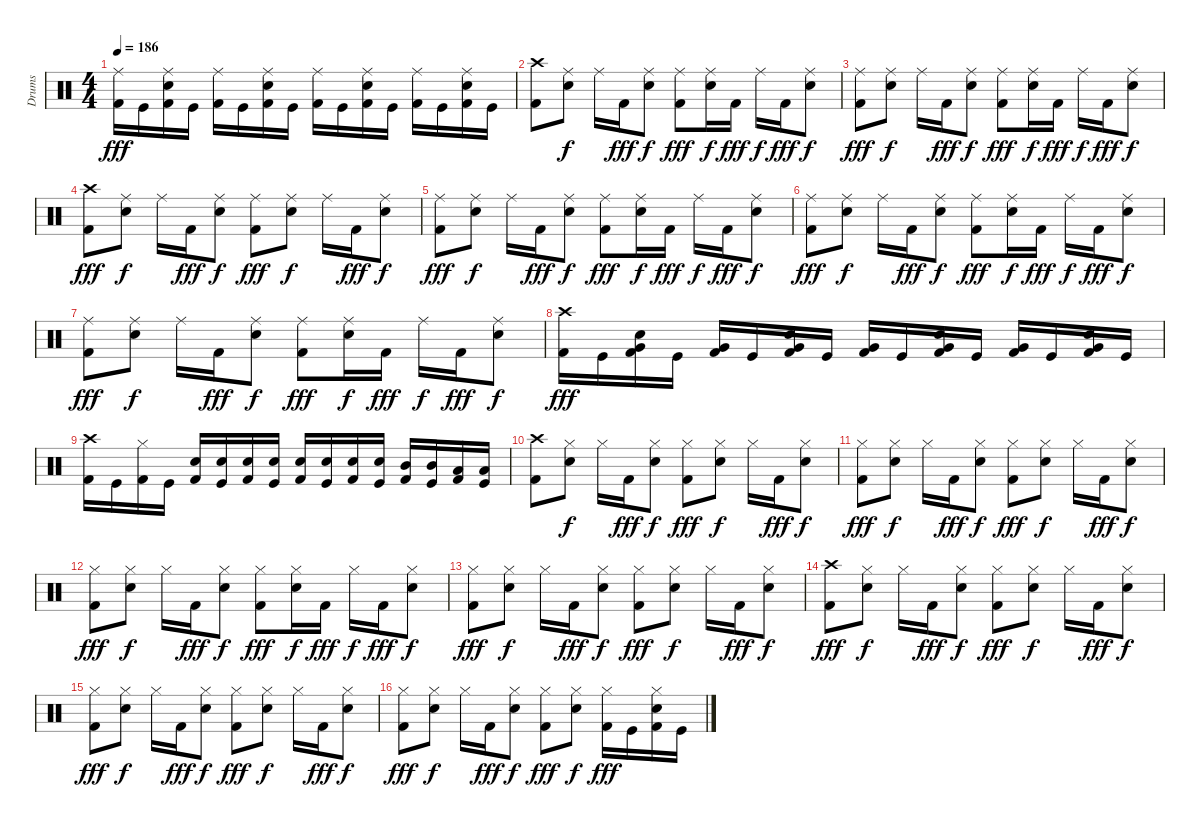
\track ("Drums" "Drums") {instrument percussion}
\staff {score}
\articulation defaults
\ts (4 4)
\tempo 186
\clef neutral
\ks c
("Ride (middle)" "Kick (hit) 2").16{dy fff} "Kick (hit)".16 ("Ride (middle)" "Electric Snare (hit)" "Kick (hit) 2").16 "Kick (hit)".16 ("Ride (middle)" "Kick (hit) 2").16 "Kick (hit)".16 ("Ride (middle)" "Electric Snare (hit)" "Kick (hit) 2").16 "Kick (hit)".16 ("Ride (middle)" "Kick (hit) 2").16 "Kick (hit)".16 ("Ride (middle)" "Electric Snare (hit)" "Kick (hit) 2").16 "Kick (hit)".16 ("Ride (middle)" "Kick (hit) 2").16 "Kick (hit)".16 ("Ride (middle)" "Electric Snare (hit)" "Kick (hit) 2").16 "Kick (hit)".16 |
("Crash high (hit)" "Kick (hit) 2").8 ("Ride (middle)" "Electric Snare (hit)").8{dy f} "Ride (middle)".16 "Kick (hit) 2".16{dy fff} ("Ride (middle)" "Electric Snare (hit)").8{dy f} ("Ride (middle)" "Kick (hit) 2").8{dy fff} ("Ride (middle)" "Electric Snare (hit)").16{dy f} "Kick (hit) 2".16{dy fff} "Ride (middle)".16{dy f} "Kick (hit) 2".16{dy fff} ("Ride (middle)" "Electric Snare (hit)").8{dy f} |
("Ride (middle)" "Kick (hit) 2").8{dy fff} ("Ride (middle)" "Electric Snare (hit)").8{dy f} "Ride (middle)".16 "Kick (hit) 2".16{dy fff} ("Ride (middle)" "Electric Snare (hit)").8{dy f} ("Ride (middle)" "Kick (hit) 2").8{dy fff} ("Ride (middle)" "Electric Snare (hit)").16{dy f} "Kick (hit) 2".16{dy fff} "Ride (middle)".16{dy f} "Kick (hit) 2".16{dy fff} ("Ride (middle)" "Electric Snare (hit)").8{dy f} |
("Crash high (hit)" "Kick (hit) 2").8{dy fff} ("Ride (middle)" "Electric Snare (hit)").8{dy f} "Ride (middle)".16 "Kick (hit) 2".16{dy fff} ("Ride (middle)" "Electric Snare (hit)").8{dy f} ("Ride (middle)" "Kick (hit) 2").8{dy fff} ("Ride (middle)" "Electric Snare (hit)").8{dy f} "Ride (middle)".16 "Kick (hit) 2".16{dy fff} ("Ride (middle)" "Electric Snare (hit)").8{dy f} |
("Ride (middle)" "Kick (hit) 2").8{dy fff} ("Ride (middle)" "Electric Snare (hit)").8{dy f} "Ride (middle)".16 "Kick (hit) 2".16{dy fff} ("Ride (middle)" "Electric Snare (hit)").8{dy f} ("Ride (middle)" "Kick (hit) 2").8{dy fff} ("Ride (middle)" "Electric Snare (hit)").16{dy f} "Kick (hit) 2".16{dy fff} "Ride (middle)".16{dy f} "Kick (hit) 2".16{dy fff} ("Ride (middle)" "Electric Snare (hit)").8{dy f} |
("Ride (middle)" "Kick (hit) 2").8{dy fff} ("Ride (middle)" "Electric Snare (hit)").8{dy f} "Ride (middle)".16 "Kick (hit) 2".16{dy fff} ("Ride (middle)" "Electric Snare (hit)").8{dy f} ("Ride (middle)" "Kick (hit) 2").8{dy fff} ("Ride (middle)" "Electric Snare (hit)").16{dy f} "Kick (hit) 2".16{dy fff} "Ride (middle)".16{dy f} "Kick (hit) 2".16{dy fff} ("Ride (middle)" "Electric Snare (hit)").8{dy f} |
("Ride (middle)" "Kick (hit) 2").8{dy fff} ("Ride (middle)" "Electric Snare (hit)").8{dy f} "Ride (middle)".16 "Kick (hit) 2".16{dy fff} ("Ride (middle)" "Electric Snare (hit)").8{dy f} ("Ride (middle)" "Kick (hit) 2").8{dy fff} ("Ride (middle)" "Electric Snare (hit)").16{dy f} "Kick (hit) 2".16{dy fff} "Ride (middle)".16{dy f} "Kick (hit) 2".16{dy fff} ("Ride (middle)" "Electric Snare (hit)").8{dy f} |
("Crash high (hit)" "Kick (hit) 2").16{dy fff} "Kick (hit)".16 ("Very Low Tom (hit)" "Electric Snare (hit)" "Kick (hit) 2").16 "Kick (hit)".16 ("Very Low Tom (hit)" "Kick (hit) 2").16 "Kick (hit)".16 ("Very Low Tom (hit)" "Electric Snare (hit)" "Kick (hit) 2").16 "Kick (hit)".16 ("Very Low Tom (hit)" "Kick (hit) 2").16 "Kick (hit)".16 ("Very Low Tom (hit)" "Electric Snare (hit)" "Kick (hit) 2").16 "Kick (hit)".16 ("Very Low Tom (hit)" "Kick (hit) 2").16 "Kick (hit)".16 ("Very Low Tom (hit)" "Electric Snare (hit)" "Kick (hit) 2").16 "Kick (hit)".16 |
("Crash high (hit)" "Kick (hit) 2").16 "Kick (hit)".16 ("Hi-Hat (closed)" "Kick (hit) 2").16 "Kick (hit)".16 ("Electric Snare (hit)" "Kick (hit) 2").16 ("Electric Snare (hit)" "Kick (hit)").16 ("Electric Snare (hit)" "Kick (hit) 2").16 ("Electric Snare (hit)" "Kick (hit)").16 ("Electric Snare (hit)" "Kick (hit) 2").16 ("Electric Snare (hit)" "Kick (hit)").16 ("Electric Snare (hit)" "Kick (hit) 2").16 ("Electric Snare (hit)" "Kick (hit)").16 ("Mid Tom (hit)" "Kick (hit) 2").16 ("Mid Tom (hit)" "Kick (hit)").16 ("Low Tom (hit)" "Kick (hit) 2").16 ("Low Tom (hit)" "Kick (hit)").16 |
("Crash high (hit)" "Kick (hit) 2").8 ("Hi-Hat (closed)" "Electric Snare (hit)").8{dy f} "Hi-Hat (closed)".16 "Kick (hit) 2".16{dy fff} ("Hi-Hat (closed)" "Electric Snare (hit)").8{dy f} ("Hi-Hat (closed)" "Kick (hit) 2").8{dy fff} ("Hi-Hat (closed)" "Electric Snare (hit)").8{dy f} "Hi-Hat (closed)".16 "Kick (hit) 2".16{dy fff} ("Hi-Hat (closed)" "Electric Snare (hit)").8{dy f} |
("Hi-Hat (closed)" "Kick (hit) 2").8{dy fff} ("Hi-Hat (closed)" "Electric Snare (hit)").8{dy f} "Hi-Hat (closed)".16 "Kick (hit) 2".16{dy fff} ("Hi-Hat (closed)" "Electric Snare (hit)").8{dy f} ("Hi-Hat (closed)" "Kick (hit) 2").8{dy fff} ("Hi-Hat (closed)" "Electric Snare (hit)").8{dy f} "Hi-Hat (closed)".16 "Kick (hit) 2".16{dy fff} ("Hi-Hat (closed)" "Electric Snare (hit)").8{dy f} |
("Hi-Hat (closed)" "Kick (hit) 2").8{dy fff} ("Hi-Hat (closed)" "Electric Snare (hit)").8{dy f} "Hi-Hat (closed)".16 "Kick (hit) 2".16{dy fff} ("Hi-Hat (closed)" "Electric Snare (hit)").8{dy f} ("Hi-Hat (closed)" "Kick (hit) 2").8{dy fff} ("Hi-Hat (closed)" "Electric Snare (hit)").16{dy f} "Kick (hit) 2".16{dy fff} "Hi-Hat (closed)".16{dy f} "Kick (hit) 2".16{dy fff} ("Hi-Hat (closed)" "Electric Snare (hit)").8{dy f} |
("Hi-Hat (closed)" "Kick (hit) 2").8{dy fff} ("Hi-Hat (closed)" "Electric Snare (hit)").8{dy f} "Hi-Hat (closed)".16 "Kick (hit) 2".16{dy fff} ("Hi-Hat (closed)" "Electric Snare (hit)").8{dy f} ("Hi-Hat (closed)" "Kick (hit) 2").8{dy fff} ("Hi-Hat (closed)" "Electric Snare (hit)").8{dy f} "Hi-Hat (closed)".16 "Kick (hit) 2".16{dy fff} ("Hi-Hat (closed)" "Electric Snare (hit)").8{dy f} |
("Crash high (hit)" "Kick (hit) 2").8{dy fff} ("Hi-Hat (closed)" "Electric Snare (hit)").8{dy f} "Hi-Hat (closed)".16 "Kick (hit) 2".16{dy fff} ("Hi-Hat (closed)" "Electric Snare (hit)").8{dy f} ("Hi-Hat (closed)" "Kick (hit) 2").8{dy fff} ("Hi-Hat (closed)" "Electric Snare (hit)").8{dy f} "Hi-Hat (closed)".16 "Kick (hit) 2".16{dy fff} ("Hi-Hat (closed)" "Electric Snare (hit)").8{dy f} |
("Hi-Hat (closed)" "Kick (hit) 2").8{dy fff} ("Hi-Hat (closed)" "Electric Snare (hit)").8{dy f} "Hi-Hat (closed)".16 "Kick (hit) 2".16{dy fff} ("Hi-Hat (closed)" "Electric Snare (hit)").8{dy f} ("Hi-Hat (closed)" "Kick (hit) 2").8{dy fff} ("Hi-Hat (closed)" "Electric Snare (hit)").8{dy f} "Hi-Hat (closed)".16 "Kick (hit) 2".16{dy fff} ("Hi-Hat (closed)" "Electric Snare (hit)").8{dy f} |
("Hi-Hat (closed)" "Kick (hit) 2").8{dy fff} ("Hi-Hat (closed)" "Electric Snare (hit)").8{dy f} "Hi-Hat (closed)".16 "Kick (hit) 2".16{dy fff} ("Hi-Hat (closed)" "Electric Snare (hit)").8{dy f} ("Hi-Hat (closed)" "Kick (hit) 2").8{dy fff} ("Hi-Hat (closed)" "Electric Snare (hit)").8{dy f} ("Hi-Hat (closed)" "Kick (hit) 2").16{dy fff} "Kick (hit)".16 ("Hi-Hat (closed)" "Electric Snare (hit)" "Kick (hit) 2").16 "Kick (hit)".16
